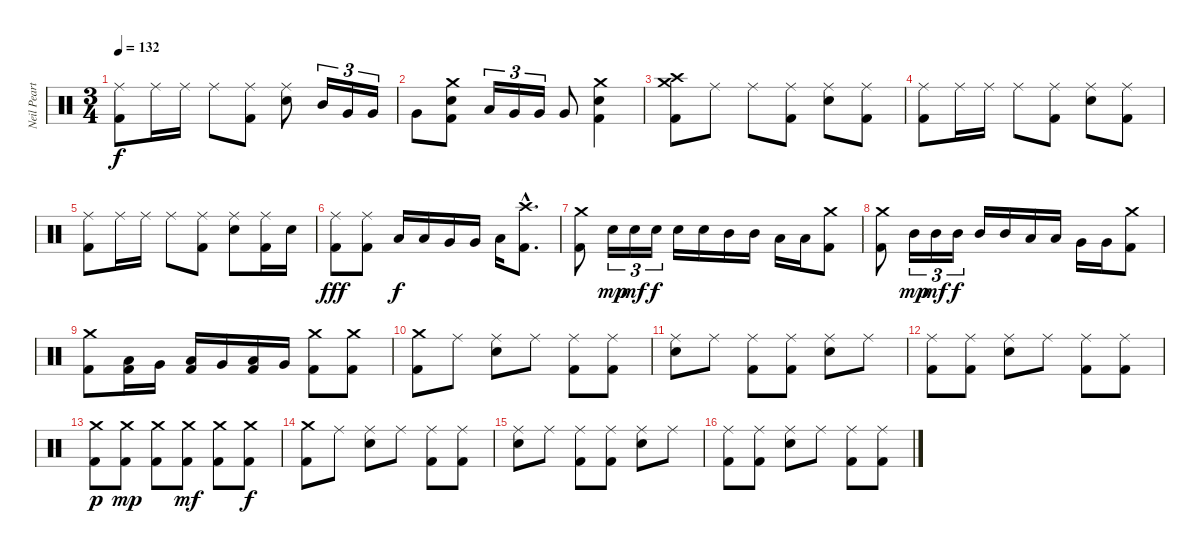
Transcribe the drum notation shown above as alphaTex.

\track ("Neil Peart" "Neil Peart") {instrument percussion}
\staff {score}
\articulation defaults
\ts (3 4)
\tempo 132
\clef neutral
\ks c
("Ride (middle)" "Kick (hit) 2").8{dy f} "Ride (middle)".16 "Ride (middle)".16 "Ride (middle)".8 ("Ride (middle)" "Kick (hit) 2").8 ("Ride (middle)" "Electric Snare (hit)").8 "Mid Tom (hit)".16{tu (3 2)} "Very Low Tom (hit)".16{tu (3 2)} "Very Low Tom (hit)".16{tu (3 2)} |
"Very Low Tom (hit)".8 ("Crash medium (hit)" "Electric Snare (hit)" "Kick (hit) 2").8 "Low Tom (hit)".16{tu (3 2)} "Very Low Tom (hit)".16{tu (3 2)} "Very Low Tom (hit)".16{tu (3 2)} "Very Low Tom (hit)".8 ("Crash medium (hit)" "Electric Snare (hit)" "Kick (hit) 2").4 |
("Crash medium (hit)" "Crash high (hit)" "Kick (hit) 2").8 "Ride (middle)".8 "Ride (middle)".8 ("Ride (middle)" "Kick (hit) 2").8 ("Ride (middle)" "Electric Snare (hit)").8 ("Ride (middle)" "Kick (hit) 2").8 |
("Ride (middle)" "Kick (hit) 2").8 "Ride (middle)".16 "Ride (middle)".16 "Ride (middle)".8 ("Ride (middle)" "Kick (hit) 2").8 ("Ride (middle)" "Electric Snare (hit)").8 ("Ride (middle)" "Kick (hit) 2").8 |
("Ride (middle)" "Kick (hit) 2").8 "Ride (middle)".16 "Ride (middle)".16 "Ride (middle)".8 ("Ride (middle)" "Kick (hit) 2").8 ("Ride (middle)" "Electric Snare (hit)").8 ("Ride (middle)" "Kick (hit) 2").16 "Electric Snare (hit)".16 |
("Ride (middle)" "Kick (hit) 2").8{dy fff} ("Ride (middle)" "Kick (hit) 2").8 "Low Tom (hit)".16{dy f} "Low Tom (hit)".16 "Very Low Tom (hit)".16 "Very Low Tom (hit)".16 "Low Floor Tom (hit)".16 ("Crash high (hit)"{hac} "Kick (hit) 2"{hac}).8{d} |
("Crash medium (hit)" "Kick (hit) 2").8 "Electric Snare (hit)".16{tu (3 2) dy mp} "Electric Snare (hit)".16{tu (3 2) dy mf} "Electric Snare (hit)".16{tu (3 2) dy f} "Electric Snare (hit)".16 "Electric Snare (hit)".16 "Mid Tom (hit)".16 "Mid Tom (hit)".16 "Low Tom (hit)".16 "Low Tom (hit)".16 ("Crash medium (hit)" "Kick (hit) 2").8 |
("Crash medium (hit)" "Kick (hit) 2").8 "Mid Tom (hit)".16{tu (3 2) dy mp} "Mid Tom (hit)".16{tu (3 2) dy mf} "Mid Tom (hit)".16{tu (3 2) dy f} "Mid Tom (hit)".16 "Mid Tom (hit)".16 "Low Tom (hit)".16 "Low Tom (hit)".16 "Very Low Tom (hit)".16 "Very Low Tom (hit)".16 ("Crash medium (hit)" "Kick (hit) 2").8 |
("Crash medium (hit)" "Kick (hit) 2").8 ("Low Tom (hit)" "Kick (hit) 2").16 "Very Low Tom (hit)".16 ("Low Tom (hit)" "Kick (hit) 2").16 "Very Low Tom (hit)".16 ("Low Tom (hit)" "Kick (hit) 2").16 "Very Low Tom (hit)".16 ("Crash medium (hit)" "Kick (hit) 2").8 ("Crash medium (hit)" "Kick (hit) 2").8 |
("Crash medium (hit)" "Kick (hit) 2").8 "Ride (middle)".8 ("Ride (middle)" "Electric Snare (hit)").8 "Ride (middle)".8 ("Ride (middle)" "Kick (hit) 2").8 ("Ride (middle)" "Kick (hit) 2").8 |
("Ride (middle)" "Electric Snare (hit)").8 "Ride (middle)".8 ("Ride (middle)" "Kick (hit) 2").8 ("Ride (middle)" "Kick (hit) 2").8 ("Ride (middle)" "Electric Snare (hit)").8 "Ride (middle)".8 |
("Ride (middle)" "Kick (hit) 2").8 ("Ride (middle)" "Kick (hit) 2").8 ("Ride (middle)" "Electric Snare (hit)").8 "Ride (middle)".8 ("Ride (middle)" "Kick (hit) 2").8 ("Ride (middle)" "Kick (hit) 2").8 |
("Crash medium (hit)" "Kick (hit) 2").8{dy p} ("Crash medium (hit)" "Kick (hit) 2").8{dy mp} ("Crash medium (hit)" "Kick (hit) 2").8 ("Crash medium (hit)" "Kick (hit) 2").8{dy mf} ("Crash medium (hit)" "Kick (hit) 2").8 ("Crash medium (hit)" "Kick (hit) 2").8{dy f} |
("Crash medium (hit)" "Kick (hit) 2").8 "Ride (middle)".8 ("Ride (middle)" "Electric Snare (hit)").8 "Ride (middle)".8 ("Ride (middle)" "Kick (hit) 2").8 ("Ride (middle)" "Kick (hit) 2").8 |
("Ride (middle)" "Electric Snare (hit)").8 "Ride (middle)".8 ("Ride (middle)" "Kick (hit) 2").8 ("Ride (middle)" "Kick (hit) 2").8 ("Ride (middle)" "Electric Snare (hit)").8 "Ride (middle)".8 |
("Ride (middle)" "Kick (hit) 2").8 ("Ride (middle)" "Kick (hit) 2").8 ("Ride (middle)" "Electric Snare (hit)").8 "Ride (middle)".8 ("Ride (middle)" "Kick (hit) 2").8 ("Ride (middle)" "Kick (hit) 2").8
